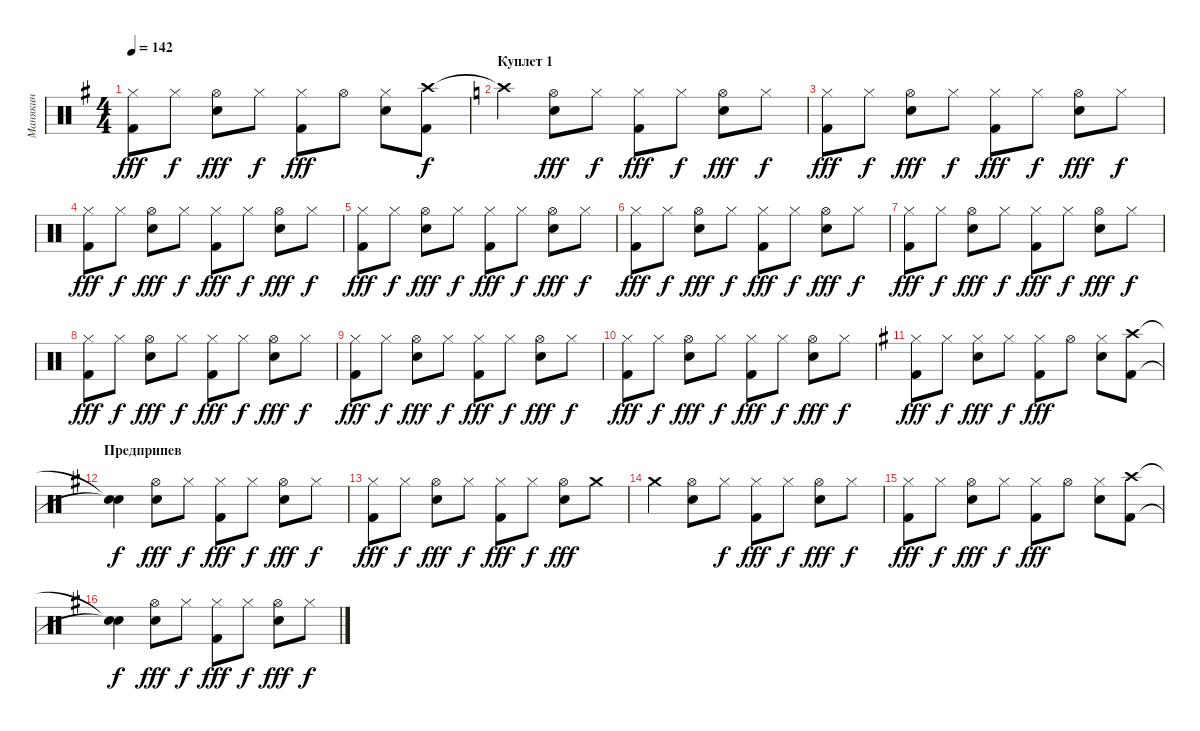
\track ("Манякин" "Манякин") {instrument percussion}
\staff {score}
\articulation defaults
\ts (4 4)
\tempo 142
\clef neutral
\ks eminor
("Hi-Hat (closed)" "Kick (hit) 2").8{dy fff} "Hi-Hat (closed)".8{dy f} ("Hi-Hat (open)" "Electric Snare (hit)").8{dy fff} "Hi-Hat (closed)".8{dy f} ("Hi-Hat (closed)" "Kick (hit) 2").8{dy fff} "Hi-Hat (open)".8 ("Hi-Hat (closed)" "Electric Snare (hit)").8 ("Crash high (hit)" "Kick (hit) 2").8{dy f} |
\section ("" "Куплет 1")
\ks c "Crash high (hit)"{t}.4
("Hi-Hat (open)" "Electric Snare (hit)").8{dy fff} "Hi-Hat (closed)".8{dy f} ("Hi-Hat (closed)" "Kick (hit) 2").8{dy fff} "Hi-Hat (closed)".8{dy f} ("Hi-Hat (open)" "Electric Snare (hit)").8{dy fff} "Hi-Hat (closed)".8{dy f} |
("Hi-Hat (closed)" "Kick (hit) 2").8{dy fff} "Hi-Hat (closed)".8{dy f} ("Hi-Hat (open)" "Electric Snare (hit)").8{dy fff} "Hi-Hat (closed)".8{dy f} ("Hi-Hat (closed)" "Kick (hit) 2").8{dy fff} "Hi-Hat (closed)".8{dy f} ("Hi-Hat (open)" "Electric Snare (hit)").8{dy fff} "Hi-Hat (closed)".8{dy f} |
("Hi-Hat (closed)" "Kick (hit) 2").8{dy fff} "Hi-Hat (closed)".8{dy f} ("Hi-Hat (open)" "Electric Snare (hit)").8{dy fff} "Hi-Hat (closed)".8{dy f} ("Hi-Hat (closed)" "Kick (hit) 2").8{dy fff} "Hi-Hat (closed)".8{dy f} ("Hi-Hat (open)" "Electric Snare (hit)").8{dy fff} "Hi-Hat (closed)".8{dy f} |
("Hi-Hat (closed)" "Kick (hit) 2").8{dy fff} "Hi-Hat (closed)".8{dy f} ("Hi-Hat (open)" "Electric Snare (hit)").8{dy fff} "Hi-Hat (closed)".8{dy f} ("Hi-Hat (closed)" "Kick (hit) 2").8{dy fff} "Hi-Hat (closed)".8{dy f} ("Hi-Hat (open)" "Electric Snare (hit)").8{dy fff} "Hi-Hat (closed)".8{dy f} |
\section ("" "")
("Hi-Hat (closed)" "Kick (hit) 2").8{dy fff} "Hi-Hat (closed)".8{dy f} ("Hi-Hat (open)" "Electric Snare (hit)").8{dy fff} "Hi-Hat (closed)".8{dy f} ("Hi-Hat (closed)" "Kick (hit) 2").8{dy fff} "Hi-Hat (closed)".8{dy f} ("Hi-Hat (open)" "Electric Snare (hit)").8{dy fff} "Hi-Hat (closed)".8{dy f} |
("Hi-Hat (closed)" "Kick (hit) 2").8{dy fff} "Hi-Hat (closed)".8{dy f} ("Hi-Hat (open)" "Electric Snare (hit)").8{dy fff} "Hi-Hat (closed)".8{dy f} ("Hi-Hat (closed)" "Kick (hit) 2").8{dy fff} "Hi-Hat (closed)".8{dy f} ("Hi-Hat (open)" "Electric Snare (hit)").8{dy fff} "Hi-Hat (closed)".8{dy f} |
("Hi-Hat (closed)" "Kick (hit) 2").8{dy fff} "Hi-Hat (closed)".8{dy f} ("Hi-Hat (open)" "Electric Snare (hit)").8{dy fff} "Hi-Hat (closed)".8{dy f} ("Hi-Hat (closed)" "Kick (hit) 2").8{dy fff} "Hi-Hat (closed)".8{dy f} ("Hi-Hat (open)" "Electric Snare (hit)").8{dy fff} "Hi-Hat (closed)".8{dy f} |
("Hi-Hat (closed)" "Kick (hit) 2").8{dy fff} "Hi-Hat (closed)".8{dy f} ("Hi-Hat (open)" "Electric Snare (hit)").8{dy fff} "Hi-Hat (closed)".8{dy f} ("Hi-Hat (closed)" "Kick (hit) 2").8{dy fff} "Hi-Hat (closed)".8{dy f} ("Hi-Hat (open)" "Electric Snare (hit)").8{dy fff} "Hi-Hat (closed)".8{dy f} |
("Hi-Hat (closed)" "Kick (hit) 2").8{dy fff} "Hi-Hat (closed)".8{dy f} ("Hi-Hat (open)" "Electric Snare (hit)").8{dy fff} "Hi-Hat (closed)".8{dy f} ("Hi-Hat (closed)" "Kick (hit) 2").8{dy fff} "Hi-Hat (closed)".8{dy f} ("Hi-Hat (open)" "Electric Snare (hit)").8{dy fff} "Hi-Hat (closed)".8{dy f} |
\ks eminor
("Hi-Hat (closed)" "Kick (hit) 2").8{dy fff} "Hi-Hat (closed)".8{dy f} ("Hi-Hat (closed)" "Electric Snare (hit)").8{dy fff} "Hi-Hat (closed)".8{dy f} ("Hi-Hat (closed)" "Kick (hit) 2").8{dy fff} "Hi-Hat (open)".8 ("Hi-Hat (closed)" "Electric Snare (hit)").8 ("Crash high (hit)" "Kick (hit) 2").8 |
\section ("" "Предприпев")
("Snare (hit)"{t} "Snare (hit)"{t}).4{dy f} ("Hi-Hat (open)" "Electric Snare (hit)").8{dy fff} "Hi-Hat (closed)".8{dy f} ("Hi-Hat (closed)" "Kick (hit) 2").8{dy fff} "Hi-Hat (closed)".8{dy f} ("Hi-Hat (open)" "Electric Snare (hit)").8{dy fff} "Hi-Hat (closed)".8{dy f} |
("Hi-Hat (closed)" "Kick (hit) 2").8{dy fff} "Hi-Hat (closed)".8{dy f} ("Hi-Hat (open)" "Electric Snare (hit)").8{dy fff} "Hi-Hat (closed)".8{dy f} ("Hi-Hat (closed)" "Kick (hit) 2").8{dy fff} "Hi-Hat (closed)".8{dy f} ("Hi-Hat (open)" "Electric Snare (hit)").8{dy fff} "Crash medium (hit)".8 |
"Crash medium (hit)".4 ("Hi-Hat (open)" "Electric Snare (hit)").8 "Hi-Hat (closed)".8{dy f} ("Hi-Hat (closed)" "Kick (hit) 2").8{dy fff} "Hi-Hat (closed)".8{dy f} ("Hi-Hat (open)" "Electric Snare (hit)").8{dy fff} "Hi-Hat (closed)".8{dy f} |
("Hi-Hat (closed)" "Kick (hit) 2").8{dy fff} "Hi-Hat (closed)".8{dy f} ("Hi-Hat (open)" "Electric Snare (hit)").8{dy fff} "Hi-Hat (closed)".8{dy f} ("Hi-Hat (closed)" "Kick (hit) 2").8{dy fff} "Hi-Hat (open)".8 ("Hi-Hat (closed)" "Electric Snare (hit)").8 ("Crash high (hit)" "Kick (hit) 2").8 |
("Snare (hit)"{t} "Snare (hit)"{t}).4{dy f} ("Hi-Hat (open)" "Electric Snare (hit)").8{dy fff} "Hi-Hat (closed)".8{dy f} ("Hi-Hat (closed)" "Kick (hit) 2").8{dy fff} "Hi-Hat (closed)".8{dy f} ("Hi-Hat (open)" "Electric Snare (hit)").8{dy fff} "Hi-Hat (closed)".8{dy f}
